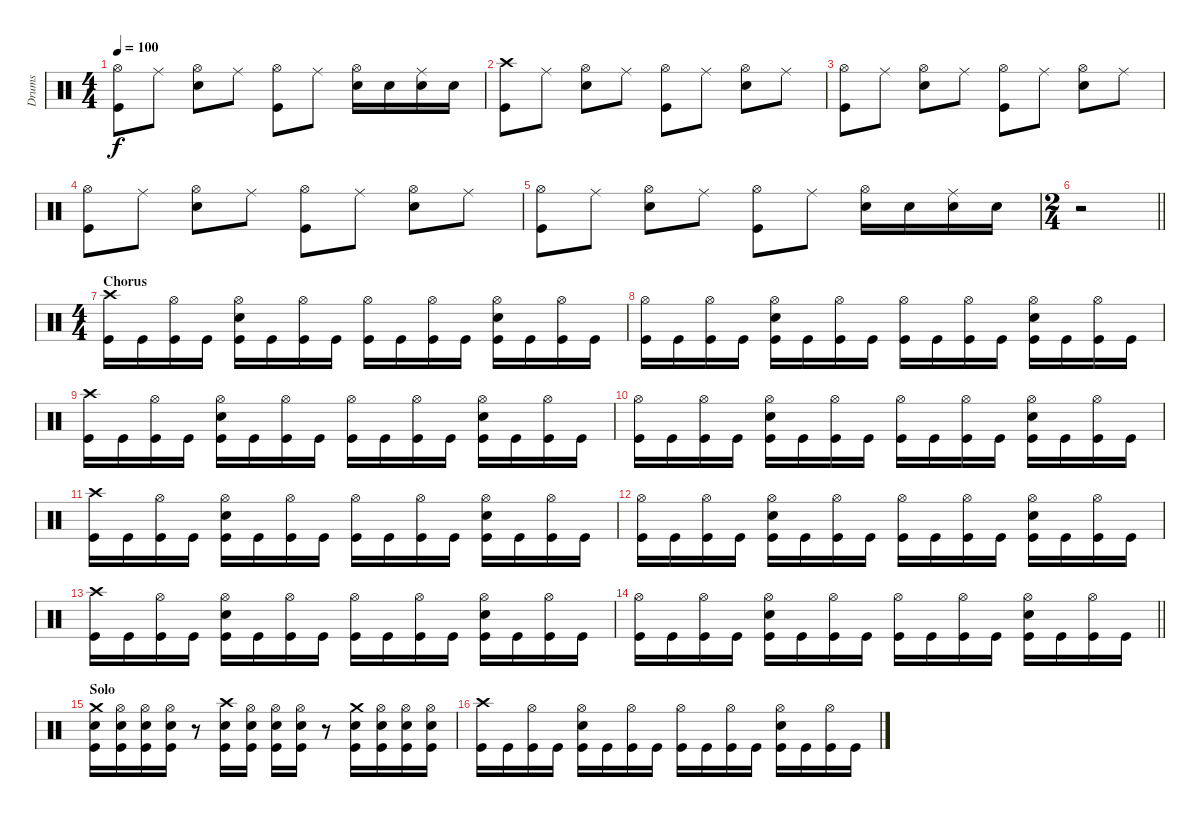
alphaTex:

\track ("Drums" "Drums") {instrument percussion}
\staff {score}
\articulation defaults
\ts (4 4)
\tempo 100
\clef neutral
\ks c
("Hi-Hat (open)" "Kick (hit)").8{dy f} "Ride (middle)".8 ("Hi-Hat (open)" "Electric Snare (hit)").8 "Ride (middle)".8 ("Hi-Hat (open)" "Kick (hit)").8 "Ride (middle)".8 ("Hi-Hat (open)" "Electric Snare (hit)").16 "Electric Snare (hit)".16 ("Ride (middle)" "Electric Snare (hit)").16 "Electric Snare (hit)".16 |
("Crash high (hit)" "Kick (hit)").8 "Ride (middle)".8 ("Hi-Hat (open)" "Electric Snare (hit)").8 "Ride (middle)".8 ("Hi-Hat (open)" "Kick (hit)").8 "Ride (middle)".8 ("Hi-Hat (open)" "Electric Snare (hit)").8 "Ride (middle)".8 |
("Hi-Hat (open)" "Kick (hit)").8 "Ride (middle)".8 ("Hi-Hat (open)" "Electric Snare (hit)").8 "Ride (middle)".8 ("Hi-Hat (open)" "Kick (hit)").8 "Ride (middle)".8 ("Hi-Hat (open)" "Electric Snare (hit)").8 "Ride (middle)".8 |
("Hi-Hat (open)" "Kick (hit)").8 "Ride (middle)".8 ("Hi-Hat (open)" "Electric Snare (hit)").8 "Ride (middle)".8 ("Hi-Hat (open)" "Kick (hit)").8 "Ride (middle)".8 ("Hi-Hat (open)" "Electric Snare (hit)").8 "Ride (middle)".8 |
("Hi-Hat (open)" "Kick (hit)").8 "Ride (middle)".8 ("Hi-Hat (open)" "Electric Snare (hit)").8 "Ride (middle)".8 ("Hi-Hat (open)" "Kick (hit)").8 "Ride (middle)".8 ("Hi-Hat (open)" "Electric Snare (hit)").16 "Electric Snare (hit)".16 ("Ride (middle)" "Electric Snare (hit)").16 "Electric Snare (hit)".16 |
\ts (2 4)
\barLineRight lightlight
r.2 |
\ts (4 4)
\section ("" "Chorus")
("Crash high (hit)" "Kick (hit)").16 "Kick (hit)".16 ("Hi-Hat (open)" "Kick (hit)").16 "Kick (hit)".16 ("Hi-Hat (open)" "Electric Snare (hit)" "Kick (hit)").16 "Kick (hit)".16 ("Hi-Hat (open)" "Kick (hit)").16 "Kick (hit)".16 ("Hi-Hat (open)" "Kick (hit)").16 "Kick (hit)".16 ("Hi-Hat (open)" "Kick (hit)").16 "Kick (hit)".16 ("Hi-Hat (open)" "Electric Snare (hit)" "Kick (hit)").16 "Kick (hit)".16 ("Hi-Hat (open)" "Kick (hit)").16 "Kick (hit)".16 |
("Hi-Hat (open)" "Kick (hit)").16 "Kick (hit)".16 ("Hi-Hat (open)" "Kick (hit)").16 "Kick (hit)".16 ("Hi-Hat (open)" "Electric Snare (hit)" "Kick (hit)").16 "Kick (hit)".16 ("Hi-Hat (open)" "Kick (hit)").16 "Kick (hit)".16 ("Hi-Hat (open)" "Kick (hit)").16 "Kick (hit)".16 ("Hi-Hat (open)" "Kick (hit)").16 "Kick (hit)".16 ("Hi-Hat (open)" "Electric Snare (hit)" "Kick (hit)").16 "Kick (hit)".16 ("Hi-Hat (open)" "Kick (hit)").16 "Kick (hit)".16 |
("Crash high (hit)" "Kick (hit)").16 "Kick (hit)".16 ("Hi-Hat (open)" "Kick (hit)").16 "Kick (hit)".16 ("Hi-Hat (open)" "Electric Snare (hit)" "Kick (hit)").16 "Kick (hit)".16 ("Hi-Hat (open)" "Kick (hit)").16 "Kick (hit)".16 ("Hi-Hat (open)" "Kick (hit)").16 "Kick (hit)".16 ("Hi-Hat (open)" "Kick (hit)").16 "Kick (hit)".16 ("Hi-Hat (open)" "Electric Snare (hit)" "Kick (hit)").16 "Kick (hit)".16 ("Hi-Hat (open)" "Kick (hit)").16 "Kick (hit)".16 |
("Hi-Hat (open)" "Kick (hit)").16 "Kick (hit)".16 ("Hi-Hat (open)" "Kick (hit)").16 "Kick (hit)".16 ("Hi-Hat (open)" "Electric Snare (hit)" "Kick (hit)").16 "Kick (hit)".16 ("Hi-Hat (open)" "Kick (hit)").16 "Kick (hit)".16 ("Hi-Hat (open)" "Kick (hit)").16 "Kick (hit)".16 ("Hi-Hat (open)" "Kick (hit)").16 "Kick (hit)".16 ("Hi-Hat (open)" "Electric Snare (hit)" "Kick (hit)").16 "Kick (hit)".16 ("Hi-Hat (open)" "Kick (hit)").16 "Kick (hit)".16 |
("Crash high (hit)" "Kick (hit)").16 "Kick (hit)".16 ("Hi-Hat (open)" "Kick (hit)").16 "Kick (hit)".16 ("Hi-Hat (open)" "Electric Snare (hit)" "Kick (hit)").16 "Kick (hit)".16 ("Hi-Hat (open)" "Kick (hit)").16 "Kick (hit)".16 ("Hi-Hat (open)" "Kick (hit)").16 "Kick (hit)".16 ("Hi-Hat (open)" "Kick (hit)").16 "Kick (hit)".16 ("Hi-Hat (open)" "Electric Snare (hit)" "Kick (hit)").16 "Kick (hit)".16 ("Hi-Hat (open)" "Kick (hit)").16 "Kick (hit)".16 |
("Hi-Hat (open)" "Kick (hit)").16 "Kick (hit)".16 ("Hi-Hat (open)" "Kick (hit)").16 "Kick (hit)".16 ("Hi-Hat (open)" "Electric Snare (hit)" "Kick (hit)").16 "Kick (hit)".16 ("Hi-Hat (open)" "Kick (hit)").16 "Kick (hit)".16 ("Hi-Hat (open)" "Kick (hit)").16 "Kick (hit)".16 ("Hi-Hat (open)" "Kick (hit)").16 "Kick (hit)".16 ("Hi-Hat (open)" "Electric Snare (hit)" "Kick (hit)").16 "Kick (hit)".16 ("Hi-Hat (open)" "Kick (hit)").16 "Kick (hit)".16 |
("Crash high (hit)" "Kick (hit)").16 "Kick (hit)".16 ("Hi-Hat (open)" "Kick (hit)").16 "Kick (hit)".16 ("Hi-Hat (open)" "Electric Snare (hit)" "Kick (hit)").16 "Kick (hit)".16 ("Hi-Hat (open)" "Kick (hit)").16 "Kick (hit)".16 ("Hi-Hat (open)" "Kick (hit)").16 "Kick (hit)".16 ("Hi-Hat (open)" "Kick (hit)").16 "Kick (hit)".16 ("Hi-Hat (open)" "Electric Snare (hit)" "Kick (hit)").16 "Kick (hit)".16 ("Hi-Hat (open)" "Kick (hit)").16 "Kick (hit)".16 |
\barLineRight lightlight
("Hi-Hat (open)" "Kick (hit)").16 "Kick (hit)".16 ("Hi-Hat (open)" "Kick (hit)").16 "Kick (hit)".16 ("Hi-Hat (open)" "Electric Snare (hit)" "Kick (hit)").16 "Kick (hit)".16 ("Hi-Hat (open)" "Kick (hit)").16 "Kick (hit)".16 ("Hi-Hat (open)" "Kick (hit)").16 "Kick (hit)".16 ("Hi-Hat (open)" "Kick (hit)").16 "Kick (hit)".16 ("Hi-Hat (open)" "Electric Snare (hit)" "Kick (hit)").16 "Kick (hit)".16 ("Hi-Hat (open)" "Kick (hit)").16 "Kick (hit)".16 |
\section ("" "Solo")
("Crash medium (hit)" "Electric Snare (hit)" "Kick (hit)").16 ("Hi-Hat (open)" "Electric Snare (hit)" "Kick (hit)").16 ("Hi-Hat (open)" "Electric Snare (hit)" "Kick (hit)").16 ("Hi-Hat (open)" "Electric Snare (hit)" "Kick (hit)").16 r.8 ("Crash high (hit)" "Electric Snare (hit)" "Kick (hit)").16 ("Hi-Hat (open)" "Electric Snare (hit)" "Kick (hit)").16 ("Hi-Hat (open)" "Electric Snare (hit)" "Kick (hit)").16 ("Hi-Hat (open)" "Electric Snare (hit)" "Kick (hit)").16 r.8 ("Crash medium (hit)" "Electric Snare (hit)" "Kick (hit)").16 ("Hi-Hat (open)" "Electric Snare (hit)" "Kick (hit)").16 ("Hi-Hat (open)" "Electric Snare (hit)" "Kick (hit)").16 ("Hi-Hat (open)" "Electric Snare (hit)" "Kick (hit)").16 |
("Crash high (hit)" "Kick (hit)").16 "Kick (hit)".16 ("Hi-Hat (open)" "Kick (hit)").16 "Kick (hit)".16 ("Hi-Hat (open)" "Electric Snare (hit)" "Kick (hit)").16 "Kick (hit)".16 ("Hi-Hat (open)" "Kick (hit)").16 "Kick (hit)".16 ("Hi-Hat (open)" "Kick (hit)").16 "Kick (hit)".16 ("Hi-Hat (open)" "Kick (hit)").16 "Kick (hit)".16 ("Hi-Hat (open)" "Electric Snare (hit)" "Kick (hit)").16 "Kick (hit)".16 ("Hi-Hat (open)" "Kick (hit)").16 "Kick (hit)".16
